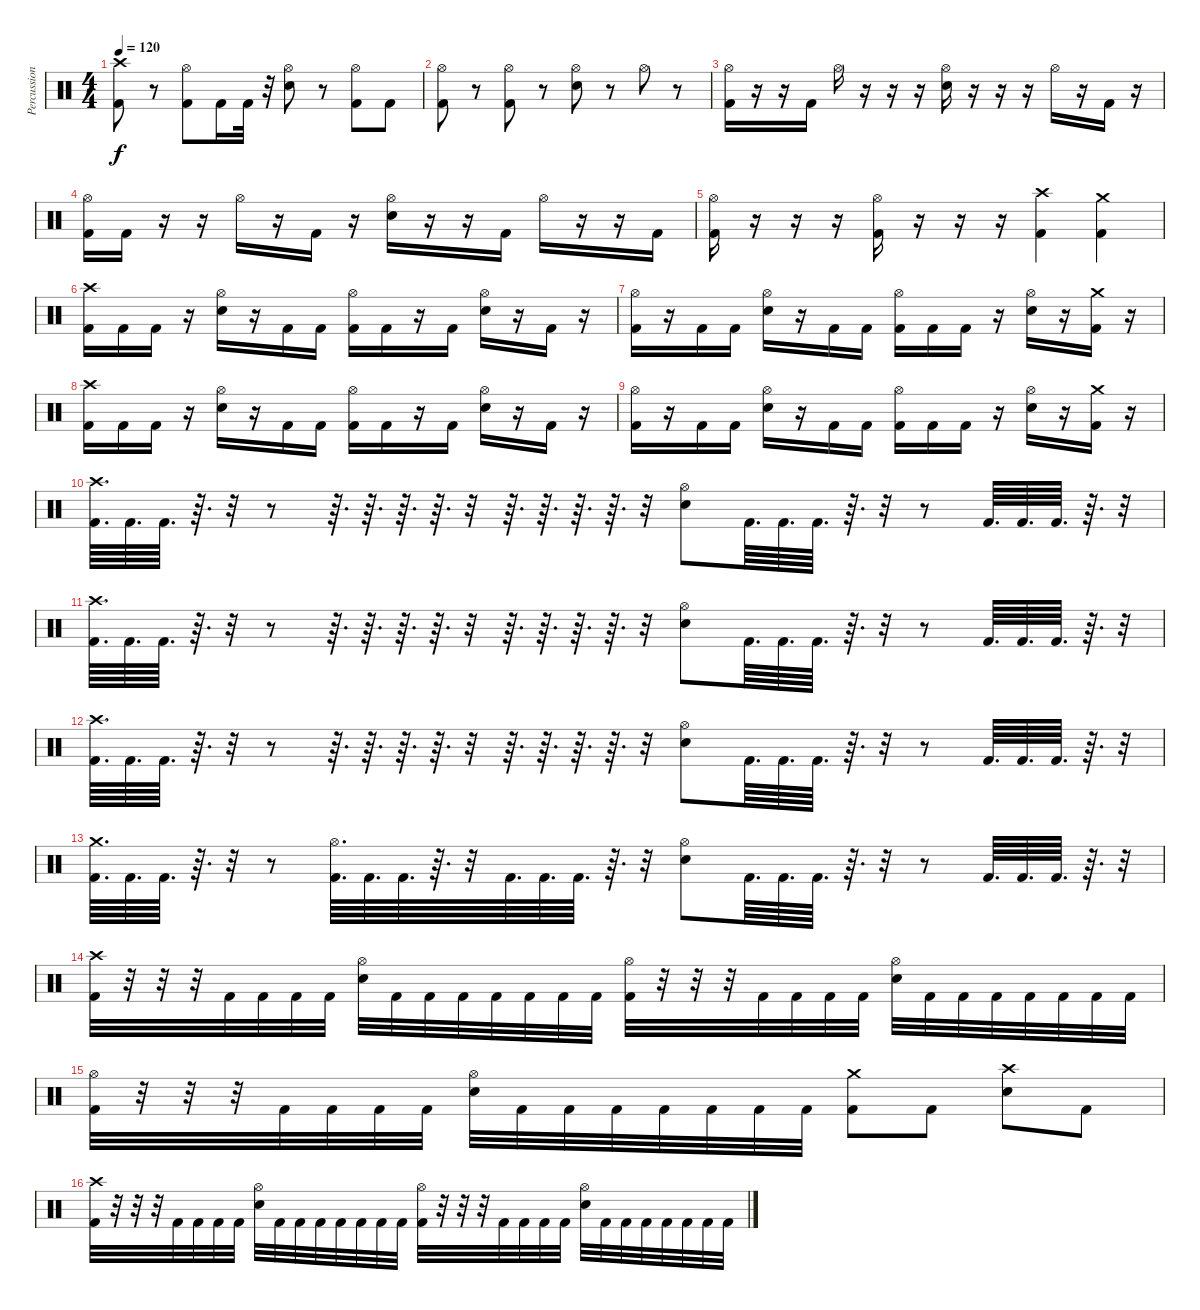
\track ("Percussion" "Percussion") {instrument percussion}
\staff {score}
\articulation defaults
\ts (4 4)
\tempo 120
\clef neutral
\ks c
("Kick (hit) 2" "Crash high (hit)").8{dy f} r.8 ("Kick (hit) 2" "Hi-Hat (open)").8 "Kick (hit) 2".16 "Kick (hit) 2".32 r.32 ("Electric Snare (hit)" "Hi-Hat (open)").8 r.8 ("Kick (hit) 2" "Hi-Hat (open)").8 "Kick (hit) 2".8 |
("Kick (hit) 2" "Hi-Hat (open)").8 r.8 ("Kick (hit) 2" "Hi-Hat (open)").8 r.8 ("Electric Snare (hit)" "Hi-Hat (open)").8 r.8 "Hi-Hat (open)".8 r.8 |
("Kick (hit) 2" "Hi-Hat (open)").16 r.16 r.16 "Kick (hit) 2".16 "Hi-Hat (open)".16 r.16 r.16 r.16 ("Electric Snare (hit)" "Hi-Hat (open)").16 r.16 r.16 r.16 "Hi-Hat (open)".16 r.16 "Kick (hit) 2".16 r.16 |
("Kick (hit) 2" "Hi-Hat (open)").16 "Kick (hit) 2".16 r.16 r.16 "Hi-Hat (open)".16 r.16 "Kick (hit) 2".16 r.16 ("Electric Snare (hit)" "Hi-Hat (open)").16 r.16 r.16 "Kick (hit) 2".16 "Hi-Hat (open)".16 r.16 r.16 "Kick (hit) 2".16 |
("Kick (hit) 2" "Hi-Hat (open)").16 r.16 r.16 r.16 ("Kick (hit) 2" "Hi-Hat (open)").16 r.16 r.16 r.16 ("Kick (hit) 2" "Crash high (hit)").4 ("Kick (hit) 2" "Crash medium (hit)").4 |
("Kick (hit) 2" "Crash high (hit)").16 "Kick (hit) 2".16 "Kick (hit) 2".16 r.16 ("Electric Snare (hit)" "Hi-Hat (open)").16 r.16 "Kick (hit) 2".16 "Kick (hit) 2".16 ("Kick (hit) 2" "Hi-Hat (open)").16 "Kick (hit) 2".16 r.16 "Kick (hit) 2".16 ("Electric Snare (hit)" "Hi-Hat (open)").16 r.16 "Kick (hit) 2".16 r.16 |
("Kick (hit) 2" "Hi-Hat (open)").16 r.16 "Kick (hit) 2".16 "Kick (hit) 2".16 ("Electric Snare (hit)" "Hi-Hat (open)").16 r.16 "Kick (hit) 2".16 "Kick (hit) 2".16 ("Kick (hit) 2" "Hi-Hat (open)").16 "Kick (hit) 2".16 "Kick (hit) 2".16 r.16 ("Electric Snare (hit)" "Hi-Hat (open)").16 r.16 ("Kick (hit) 2" "Crash medium (hit)").16 r.16 |
("Kick (hit) 2" "Crash high (hit)").16 "Kick (hit) 2".16 "Kick (hit) 2".16 r.16 ("Electric Snare (hit)" "Hi-Hat (open)").16 r.16 "Kick (hit) 2".16 "Kick (hit) 2".16 ("Kick (hit) 2" "Hi-Hat (open)").16 "Kick (hit) 2".16 r.16 "Kick (hit) 2".16 ("Electric Snare (hit)" "Hi-Hat (open)").16 r.16 "Kick (hit) 2".16 r.16 |
("Kick (hit) 2" "Hi-Hat (open)").16 r.16 "Kick (hit) 2".16 "Kick (hit) 2".16 ("Electric Snare (hit)" "Hi-Hat (open)").16 r.16 "Kick (hit) 2".16 "Kick (hit) 2".16 ("Kick (hit) 2" "Hi-Hat (open)").16 "Kick (hit) 2".16 "Kick (hit) 2".16 r.16 ("Electric Snare (hit)" "Hi-Hat (open)").16 r.16 ("Kick (hit) 2" "Crash medium (hit)").16 r.16 |
("Kick (hit) 2" "Crash high (hit)").64{d} "Kick (hit) 2".64{d} "Kick (hit) 2".64{d} r.64{d} r.32 r.8 r.64{d} r.64{d} r.64{d} r.64{d} r.32 r.64{d} r.64{d} r.64{d} r.64{d} r.32 ("Electric Snare (hit)" "Hi-Hat (open)").8 "Kick (hit) 2".64{d} "Kick (hit) 2".64{d} "Kick (hit) 2".64{d} r.64{d} r.32 r.8 "Kick (hit) 2".64{d} "Kick (hit) 2".64{d} "Kick (hit) 2".64{d} r.64{d} r.32 |
("Kick (hit) 2" "Crash high (hit)").64{d} "Kick (hit) 2".64{d} "Kick (hit) 2".64{d} r.64{d} r.32 r.8 r.64{d} r.64{d} r.64{d} r.64{d} r.32 r.64{d} r.64{d} r.64{d} r.64{d} r.32 ("Electric Snare (hit)" "Hi-Hat (open)").8 "Kick (hit) 2".64{d} "Kick (hit) 2".64{d} "Kick (hit) 2".64{d} r.64{d} r.32 r.8 "Kick (hit) 2".64{d} "Kick (hit) 2".64{d} "Kick (hit) 2".64{d} r.64{d} r.32 |
("Kick (hit) 2" "Crash high (hit)").64{d} "Kick (hit) 2".64{d} "Kick (hit) 2".64{d} r.64{d} r.32 r.8 r.64{d} r.64{d} r.64{d} r.64{d} r.32 r.64{d} r.64{d} r.64{d} r.64{d} r.32 ("Electric Snare (hit)" "Hi-Hat (open)").8 "Kick (hit) 2".64{d} "Kick (hit) 2".64{d} "Kick (hit) 2".64{d} r.64{d} r.32 r.8 "Kick (hit) 2".64{d} "Kick (hit) 2".64{d} "Kick (hit) 2".64{d} r.64{d} r.32 |
("Kick (hit) 2" "Crash medium (hit)").64{d} "Kick (hit) 2".64{d} "Kick (hit) 2".64{d} r.64{d} r.32 r.8 ("Kick (hit) 2" "Hi-Hat (open)").64{d} "Kick (hit) 2".64{d} "Kick (hit) 2".64{d} r.64{d} r.32 "Kick (hit) 2".64{d} "Kick (hit) 2".64{d} "Kick (hit) 2".64{d} r.64{d} r.32 ("Electric Snare (hit)" "Hi-Hat (open)").8 "Kick (hit) 2".64{d} "Kick (hit) 2".64{d} "Kick (hit) 2".64{d} r.64{d} r.32 r.8 "Kick (hit) 2".64{d} "Kick (hit) 2".64{d} "Kick (hit) 2".64{d} r.64{d} r.32 |
("Kick (hit) 2" "Crash high (hit)").32 r.32 r.32 r.32 "Kick (hit) 2".32 "Kick (hit) 2".32 "Kick (hit) 2".32 "Kick (hit) 2".32 ("Electric Snare (hit)" "Hi-Hat (open)").32 "Kick (hit) 2".32 "Kick (hit) 2".32 "Kick (hit) 2".32 "Kick (hit) 2".32 "Kick (hit) 2".32 "Kick (hit) 2".32 "Kick (hit) 2".32 ("Kick (hit) 2" "Hi-Hat (open)").32 r.32 r.32 r.32 "Kick (hit) 2".32 "Kick (hit) 2".32 "Kick (hit) 2".32 "Kick (hit) 2".32 ("Electric Snare (hit)" "Hi-Hat (open)").32 "Kick (hit) 2".32 "Kick (hit) 2".32 "Kick (hit) 2".32 "Kick (hit) 2".32 "Kick (hit) 2".32 "Kick (hit) 2".32 "Kick (hit) 2".32 |
("Kick (hit) 2" "Hi-Hat (open)").32 r.32 r.32 r.32 "Kick (hit) 2".32 "Kick (hit) 2".32 "Kick (hit) 2".32 "Kick (hit) 2".32 ("Electric Snare (hit)" "Hi-Hat (open)").32 "Kick (hit) 2".32 "Kick (hit) 2".32 "Kick (hit) 2".32 "Kick (hit) 2".32 "Kick (hit) 2".32 "Kick (hit) 2".32 "Kick (hit) 2".32 ("Kick (hit) 2" "Crash medium (hit)").8 "Kick (hit) 2".8 ("Electric Snare (hit)" "Crash high (hit)").8 "Kick (hit) 2".8 |
("Kick (hit) 2" "Crash high (hit)").32 r.32 r.32 r.32 "Kick (hit) 2".32 "Kick (hit) 2".32 "Kick (hit) 2".32 "Kick (hit) 2".32 ("Electric Snare (hit)" "Hi-Hat (open)").32 "Kick (hit) 2".32 "Kick (hit) 2".32 "Kick (hit) 2".32 "Kick (hit) 2".32 "Kick (hit) 2".32 "Kick (hit) 2".32 "Kick (hit) 2".32 ("Kick (hit) 2" "Hi-Hat (open)").32 r.32 r.32 r.32 "Kick (hit) 2".32 "Kick (hit) 2".32 "Kick (hit) 2".32 "Kick (hit) 2".32 ("Electric Snare (hit)" "Hi-Hat (open)").32 "Kick (hit) 2".32 "Kick (hit) 2".32 "Kick (hit) 2".32 "Kick (hit) 2".32 "Kick (hit) 2".32 "Kick (hit) 2".32 "Kick (hit) 2".32
